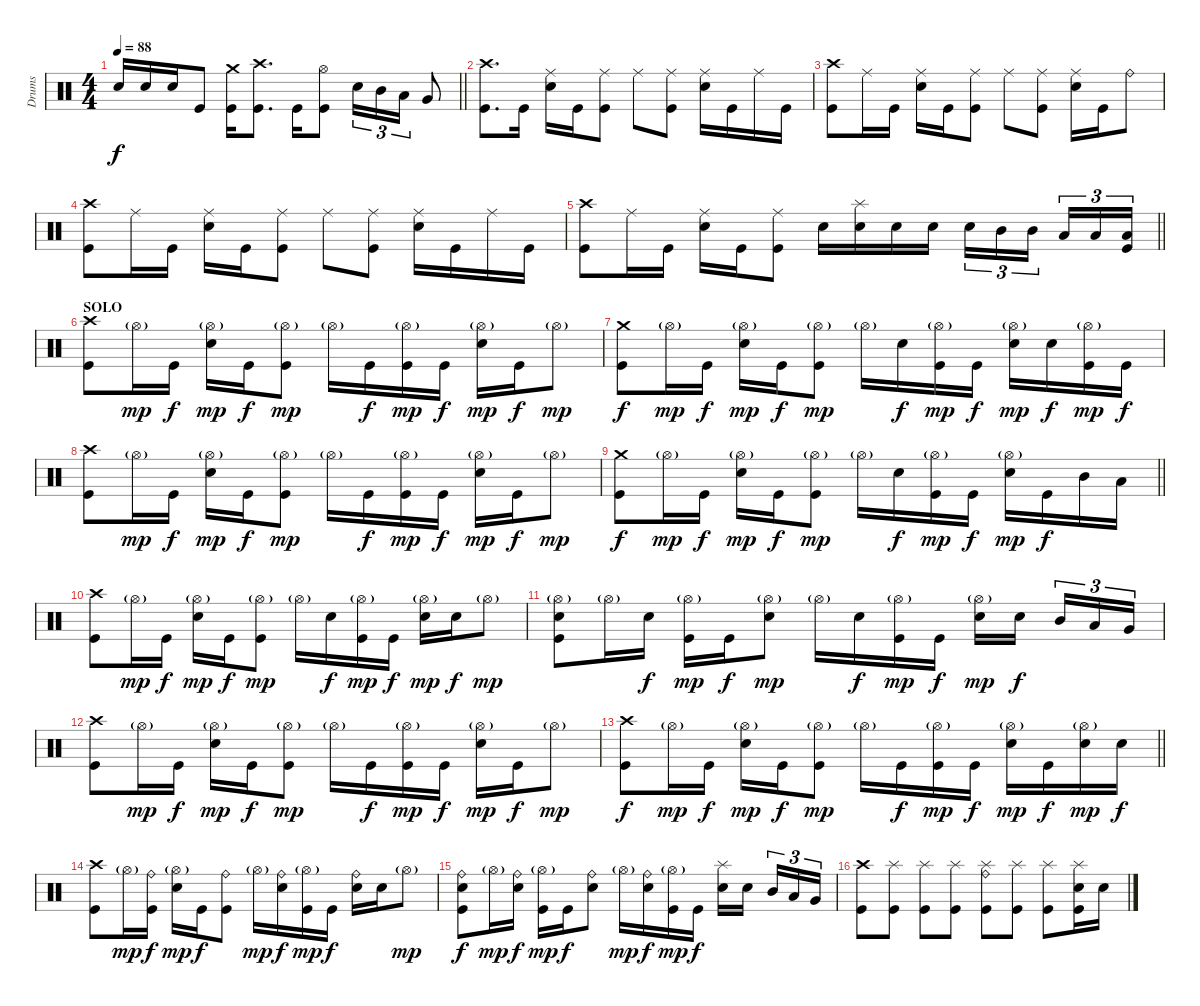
\track ("Drums" "Drums") {instrument percussion}
\staff
\articulation defaults
\ts (4 4)
\tempo 88
\clef neutral
\barLineRight lightlight
\ks c "Electric Snare (hit)".16{dy f} "Electric Snare (hit)".16 "Electric Snare (hit)".16 "Kick (hit)".8
("Crash medium (hit)" "Kick (hit)").16 ("Crash high (hit)" "Kick (hit)").8{d} "Kick (hit)".16 ("Hi-Hat (open)" "Kick (hit)").8 "Electric Snare (hit)".16{tu (3 2)} "Mid Tom (hit)".16{tu (3 2)} "Low Tom (hit)".16{tu (3 2)} "Very Low Tom (hit)".8 |
("Crash high (hit)" "Kick (hit)").8{d} "Kick (hit)".16 ("Ride (middle)" "Electric Snare (hit)").16 "Kick (hit)".16 ("Ride (middle)" "Kick (hit)").8 "Ride (middle)".8 ("Ride (middle)" "Kick (hit)").8 ("Ride (middle)" "Electric Snare (hit)").16 "Kick (hit)".16 "Ride (middle)".16 "Kick (hit)".16 |
("Crash high (hit)" "Kick (hit)").8 "Ride (middle)".16 "Kick (hit)".16 ("Ride (middle)" "Electric Snare (hit)").16 "Kick (hit)".16 ("Ride (middle)" "Kick (hit)").8 "Ride (middle)".8 ("Ride (middle)" "Kick (hit)").8 ("Ride (middle)" "Electric Snare (hit)").16 "Kick (hit)".16 "Ride (bell)".8 |
("Crash high (hit)" "Kick (hit)").8 "Ride (middle)".16 "Kick (hit)".16 ("Ride (middle)" "Electric Snare (hit)").16 "Kick (hit)".16 ("Ride (middle)" "Kick (hit)").8 "Ride (middle)".8 ("Ride (middle)" "Kick (hit)").8 ("Ride (middle)" "Electric Snare (hit)").16 "Kick (hit)".16 "Ride (middle)".16 "Kick (hit)".16 |
\barLineRight lightlight
("Crash high (hit)" "Kick (hit)").8 "Ride (middle)".16 "Kick (hit)".16 ("Ride (middle)" "Electric Snare (hit)").16 "Kick (hit)".16 ("Ride (middle)" "Kick (hit)").8 "Electric Snare (hit)".16 ("Splash (hit)" "Electric Snare (hit)").16 "Electric Snare (hit)".16 "Electric Snare (hit)".16 "Electric Snare (hit)".16{tu (3 2)} "Mid Tom (hit)".16{tu (3 2)} "Mid Tom (hit)".16{tu (3 2) beam splitsecondary} "Low Tom (hit)".16{tu (3 2)} "Low Tom (hit)".16{tu (3 2)} ("Low Floor Tom (hit)" "Kick (hit)").16{tu (3 2)} |
\section ("" "SOLO")
("Crash high (hit)" "Kick (hit)").8 "Hi-Hat (open)"{g}.16{dy mp} "Kick (hit)".16{dy f} ("Hi-Hat (open)"{g} "Electric Snare (hit)").16{dy mp} "Kick (hit)".16{dy f} ("Hi-Hat (open)"{g} "Kick (hit)").8{dy mp} "Hi-Hat (open)"{g}.16 "Kick (hit)".16{dy f} ("Hi-Hat (open)"{g} "Kick (hit)").16{dy mp} "Kick (hit)".16{dy f} ("Hi-Hat (open)"{g} "Electric Snare (hit)").16{dy mp} "Kick (hit)".16{dy f} "Hi-Hat (open)"{g}.8{dy mp} |
("Crash medium (hit)" "Kick (hit)").8{dy f} "Hi-Hat (open)"{g}.16{dy mp} "Kick (hit)".16{dy f} ("Hi-Hat (open)"{g} "Electric Snare (hit)").16{dy mp} "Kick (hit)".16{dy f} ("Hi-Hat (open)"{g} "Kick (hit)").8{dy mp} "Hi-Hat (open)"{g}.16 "Electric Snare (hit)".16{dy f} ("Hi-Hat (open)"{g} "Kick (hit)").16{dy mp} "Kick (hit)".16{dy f} ("Hi-Hat (open)"{g} "Electric Snare (hit)").16{dy mp} "Electric Snare (hit)".16{dy f} ("Hi-Hat (open)"{g} "Kick (hit)").16{dy mp} "Kick (hit)".16{dy f} |
("Crash high (hit)" "Kick (hit)").8 "Hi-Hat (open)"{g}.16{dy mp} "Kick (hit)".16{dy f} ("Hi-Hat (open)"{g} "Electric Snare (hit)").16{dy mp} "Kick (hit)".16{dy f} ("Hi-Hat (open)"{g} "Kick (hit)").8{dy mp} "Hi-Hat (open)"{g}.16 "Kick (hit)".16{dy f} ("Hi-Hat (open)"{g} "Kick (hit)").16{dy mp} "Kick (hit)".16{dy f} ("Hi-Hat (open)"{g} "Electric Snare (hit)").16{dy mp} "Kick (hit)".16{dy f} "Hi-Hat (open)"{g}.8{dy mp} |
\barLineRight lightlight
("Crash medium (hit)" "Kick (hit)").8{dy f} "Hi-Hat (open)"{g}.16{dy mp} "Kick (hit)".16{dy f} ("Hi-Hat (open)"{g} "Electric Snare (hit)").16{dy mp} "Kick (hit)".16{dy f} ("Hi-Hat (open)"{g} "Kick (hit)").8{dy mp} "Hi-Hat (open)"{g}.16 "Electric Snare (hit)".16{dy f} ("Hi-Hat (open)"{g} "Kick (hit)").16{dy mp} "Kick (hit)".16{dy f} ("Hi-Hat (open)"{g} "Electric Snare (hit)").16{dy mp} "Kick (hit)".16{dy f} "Mid Tom (hit)".16 "Low Tom (hit)".16 |
("Crash high (hit)" "Kick (hit)").8 "Hi-Hat (open)"{g}.16{dy mp} "Kick (hit)".16{dy f} ("Hi-Hat (open)"{g} "Electric Snare (hit)").16{dy mp} "Kick (hit)".16{dy f} ("Hi-Hat (open)"{g} "Kick (hit)").8{dy mp} "Hi-Hat (open)"{g}.16 "Electric Snare (hit)".16{dy f} ("Hi-Hat (open)"{g} "Kick (hit)").16{dy mp} "Kick (hit)".16{dy f} ("Hi-Hat (open)"{g} "Electric Snare (hit)").16{dy mp} "Electric Snare (hit)".16{dy f} "Hi-Hat (open)"{g}.8{dy mp} |
("Hi-Hat (open)"{g} "Electric Snare (hit)" "Kick (hit)").8 "Hi-Hat (open)"{g}.16 "Electric Snare (hit)".16{dy f} ("Hi-Hat (open)"{g} "Kick (hit)").16{dy mp} "Kick (hit)".16{dy f} ("Hi-Hat (open)"{g} "Electric Snare (hit)").8{dy mp} "Hi-Hat (open)"{g}.16 "Electric Snare (hit)".16{dy f} ("Hi-Hat (open)"{g} "Kick (hit)").16{dy mp} "Kick (hit)".16{dy f} ("Hi-Hat (open)"{g} "Electric Snare (hit)").16{dy mp} "Electric Snare (hit)".16{dy f beam splitsecondary} "Mid Tom (hit)".16{tu (3 2)} "Low Tom (hit)".16{tu (3 2)} "Very Low Tom (hit)".16{tu (3 2)} |
("Crash high (hit)" "Kick (hit)").8 "Hi-Hat (open)"{g}.16{dy mp} "Kick (hit)".16{dy f} ("Hi-Hat (open)"{g} "Electric Snare (hit)").16{dy mp} "Kick (hit)".16{dy f} ("Hi-Hat (open)"{g} "Kick (hit)").8{dy mp} "Hi-Hat (open)"{g}.16 "Kick (hit)".16{dy f} ("Hi-Hat (open)"{g} "Kick (hit)").16{dy mp} "Kick (hit)".16{dy f} ("Hi-Hat (open)"{g} "Electric Snare (hit)").16{dy mp} "Kick (hit)".16{dy f} "Hi-Hat (open)"{g}.8{dy mp} |
\barLineRight lightlight
("Crash high (hit)" "Kick (hit)").8{dy f} "Hi-Hat (open)"{g}.16{dy mp} "Kick (hit)".16{dy f} ("Hi-Hat (open)"{g} "Electric Snare (hit)").16{dy mp} "Kick (hit)".16{dy f} ("Hi-Hat (open)"{g} "Kick (hit)").8{dy mp} "Hi-Hat (open)"{g}.16 "Kick (hit)".16{dy f} ("Hi-Hat (open)"{g} "Kick (hit)").16{dy mp} "Kick (hit)".16{dy f} ("Hi-Hat (open)"{g} "Electric Snare (hit)").16{dy mp} "Kick (hit)".16{dy f} ("Hi-Hat (open)"{g} "Electric Snare (hit)").16{dy mp} "Electric Snare (hit)".16{dy f} |
("Crash high (hit)" "Kick (hit)").8 "Hi-Hat (open)"{g}.16{dy mp} ("Ride (bell)" "Kick (hit)").16{dy f} ("Hi-Hat (open)"{g} "Electric Snare (hit)").16{dy mp} "Kick (hit)".16{dy f} ("Ride (bell)" "Kick (hit)").8 "Hi-Hat (open)"{g}.16{dy mp} ("Ride (bell)" "Electric Snare (hit)").16{dy f} ("Hi-Hat (open)"{g} "Kick (hit)").16{dy mp} "Kick (hit)".16{dy f} ("Ride (bell)" "Electric Snare (hit)").16 "Electric Snare (hit)".16 "Hi-Hat (open)"{g}.8{dy mp} |
("Ride (bell)" "Electric Snare (hit)" "Kick (hit)").8{dy f} "Hi-Hat (open)"{g}.16{dy mp} ("Ride (bell)" "Electric Snare (hit)").16{dy f} ("Hi-Hat (open)"{g} "Kick (hit)").16{dy mp} "Kick (hit)".16{dy f} ("Ride (bell)" "Electric Snare (hit)").8 "Hi-Hat (open)"{g}.16{dy mp} ("Ride (bell)" "Electric Snare (hit)").16{dy f} ("Hi-Hat (open)"{g} "Kick (hit)").16{dy mp} "Kick (hit)".16{dy f} ("Splash (hit)" "Electric Snare (hit)").16 "Electric Snare (hit)".16{beam splitsecondary} "Mid Tom (hit)".16{tu (3 2)} "Low Tom (hit)".16{tu (3 2)} "Very Low Tom (hit)".16{tu (3 2)} |
("Crash high (hit)" "Kick (hit)").8 ("Splash (hit)" "Kick (hit)").8 ("Splash (hit)" "Kick (hit)").8 ("Splash (hit)" "Kick (hit)").8 ("Splash (hit)" "Ride (bell)" "Kick (hit)").8 ("Splash (hit)" "Kick (hit)").8 ("Splash (hit)" "Kick (hit)").8 ("Splash (hit)" "Electric Snare (hit)" "Kick (hit)").16 "Electric Snare (hit)".16
